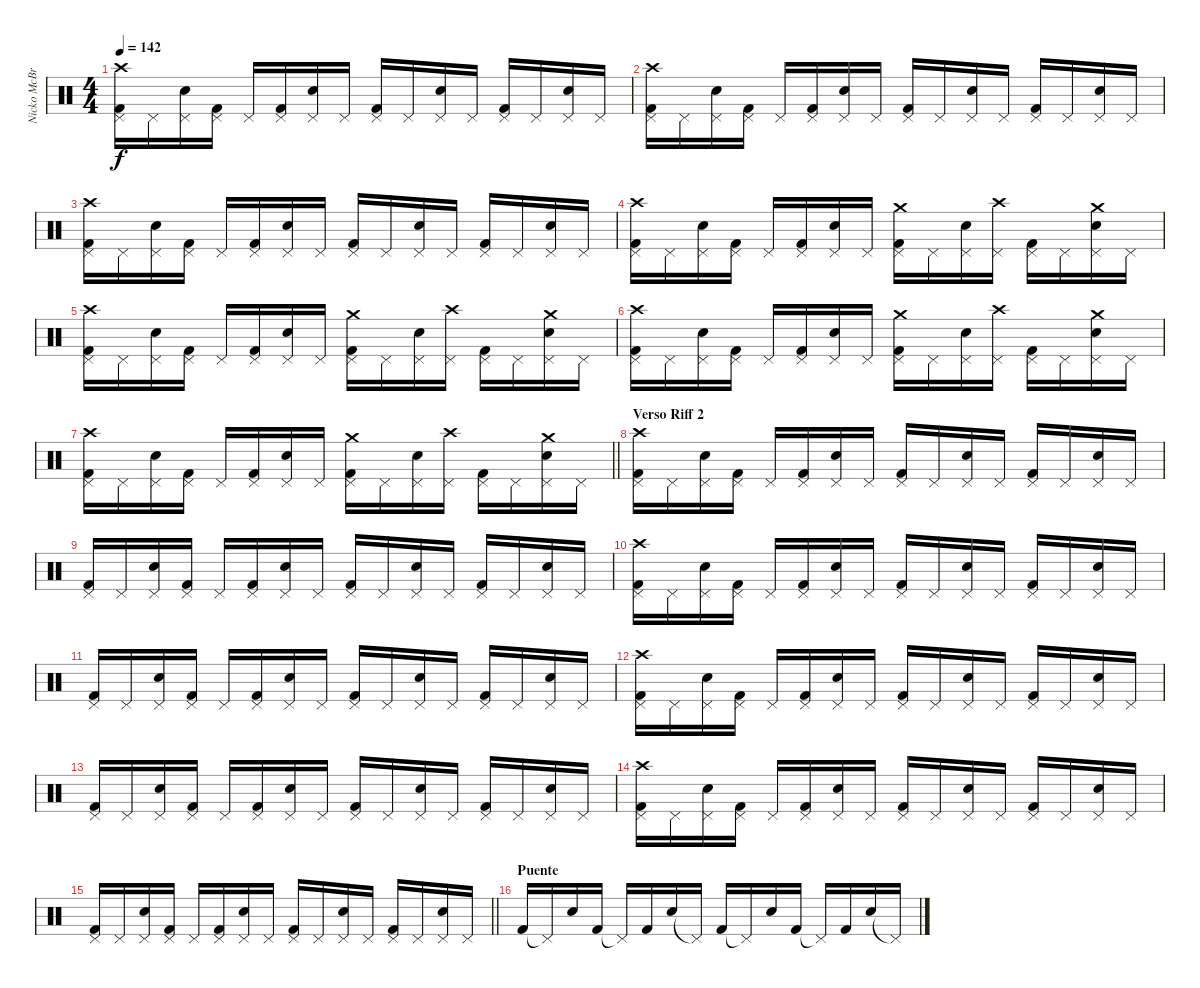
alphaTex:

\track ("Nicko McBrain" "Nicko McBr") {instrument percussion}
\staff {score}
\articulation defaults
\ts (4 4)
\tempo 142
\clef neutral
\ks c
("Kick (hit) 2" "Pedal Hi-Hat (hit)" "Crash high (hit)").16{dy f} "Pedal Hi-Hat (hit)".16 ("Snare (hit) 2" "Pedal Hi-Hat (hit)").16 ("Kick (hit) 2" "Pedal Hi-Hat (hit)").16 "Pedal Hi-Hat (hit)".16 ("Kick (hit) 2" "Pedal Hi-Hat (hit)").16 ("Snare (hit) 2" "Pedal Hi-Hat (hit)").16 "Pedal Hi-Hat (hit)".16 ("Kick (hit) 2" "Pedal Hi-Hat (hit)").16 "Pedal Hi-Hat (hit)".16 ("Snare (hit) 2" "Pedal Hi-Hat (hit)").16 "Pedal Hi-Hat (hit)".16 ("Kick (hit) 2" "Pedal Hi-Hat (hit)").16 "Pedal Hi-Hat (hit)".16 ("Snare (hit) 2" "Pedal Hi-Hat (hit)").16 "Pedal Hi-Hat (hit)".16 |
("Kick (hit) 2" "Pedal Hi-Hat (hit)" "Crash high (hit)").16 "Pedal Hi-Hat (hit)".16 ("Snare (hit) 2" "Pedal Hi-Hat (hit)").16 ("Kick (hit) 2" "Pedal Hi-Hat (hit)").16 "Pedal Hi-Hat (hit)".16 ("Kick (hit) 2" "Pedal Hi-Hat (hit)").16 ("Snare (hit) 2" "Pedal Hi-Hat (hit)").16 "Pedal Hi-Hat (hit)".16 ("Kick (hit) 2" "Pedal Hi-Hat (hit)").16 "Pedal Hi-Hat (hit)".16 ("Snare (hit) 2" "Pedal Hi-Hat (hit)").16 "Pedal Hi-Hat (hit)".16 ("Kick (hit) 2" "Pedal Hi-Hat (hit)").16 "Pedal Hi-Hat (hit)".16 ("Snare (hit) 2" "Pedal Hi-Hat (hit)").16 "Pedal Hi-Hat (hit)".16 |
("Kick (hit) 2" "Pedal Hi-Hat (hit)" "Crash high (hit)").16 "Pedal Hi-Hat (hit)".16 ("Snare (hit) 2" "Pedal Hi-Hat (hit)").16 ("Kick (hit) 2" "Pedal Hi-Hat (hit)").16 "Pedal Hi-Hat (hit)".16 ("Kick (hit) 2" "Pedal Hi-Hat (hit)").16 ("Snare (hit) 2" "Pedal Hi-Hat (hit)").16 "Pedal Hi-Hat (hit)".16 ("Kick (hit) 2" "Pedal Hi-Hat (hit)").16 "Pedal Hi-Hat (hit)".16 ("Snare (hit) 2" "Pedal Hi-Hat (hit)").16 "Pedal Hi-Hat (hit)".16 ("Kick (hit) 2" "Pedal Hi-Hat (hit)").16 "Pedal Hi-Hat (hit)".16 ("Snare (hit) 2" "Pedal Hi-Hat (hit)").16 "Pedal Hi-Hat (hit)".16 |
("Kick (hit) 2" "Pedal Hi-Hat (hit)" "Crash high (hit)").16 "Pedal Hi-Hat (hit)".16 ("Snare (hit) 2" "Pedal Hi-Hat (hit)").16 ("Kick (hit) 2" "Pedal Hi-Hat (hit)").16 "Pedal Hi-Hat (hit)".16 ("Kick (hit) 2" "Pedal Hi-Hat (hit)").16 ("Snare (hit) 2" "Pedal Hi-Hat (hit)").16 "Pedal Hi-Hat (hit)".16 ("Kick (hit) 2" "Pedal Hi-Hat (hit)" "Crash medium (hit)").16 "Pedal Hi-Hat (hit)".16 ("Snare (hit) 2" "Pedal Hi-Hat (hit)").16 ("Pedal Hi-Hat (hit)" "Crash high (hit)").16 ("Kick (hit) 2" "Pedal Hi-Hat (hit)").16 "Pedal Hi-Hat (hit)".16 ("Snare (hit) 2" "Pedal Hi-Hat (hit)" "Crash medium (hit)").16 "Pedal Hi-Hat (hit)".16 |
("Kick (hit) 2" "Pedal Hi-Hat (hit)" "Crash high (hit)").16 "Pedal Hi-Hat (hit)".16 ("Snare (hit) 2" "Pedal Hi-Hat (hit)").16 ("Kick (hit) 2" "Pedal Hi-Hat (hit)").16 "Pedal Hi-Hat (hit)".16 ("Kick (hit) 2" "Pedal Hi-Hat (hit)").16 ("Snare (hit) 2" "Pedal Hi-Hat (hit)").16 "Pedal Hi-Hat (hit)".16 ("Kick (hit) 2" "Pedal Hi-Hat (hit)" "Crash medium (hit)").16 "Pedal Hi-Hat (hit)".16 ("Snare (hit) 2" "Pedal Hi-Hat (hit)").16 ("Pedal Hi-Hat (hit)" "Crash high (hit)").16 ("Kick (hit) 2" "Pedal Hi-Hat (hit)").16 "Pedal Hi-Hat (hit)".16 ("Snare (hit) 2" "Pedal Hi-Hat (hit)" "Crash medium (hit)").16 "Pedal Hi-Hat (hit)".16 |
("Kick (hit) 2" "Pedal Hi-Hat (hit)" "Crash high (hit)").16 "Pedal Hi-Hat (hit)".16 ("Snare (hit) 2" "Pedal Hi-Hat (hit)").16 ("Kick (hit) 2" "Pedal Hi-Hat (hit)").16 "Pedal Hi-Hat (hit)".16 ("Kick (hit) 2" "Pedal Hi-Hat (hit)").16 ("Snare (hit) 2" "Pedal Hi-Hat (hit)").16 "Pedal Hi-Hat (hit)".16 ("Kick (hit) 2" "Pedal Hi-Hat (hit)" "Crash medium (hit)").16 "Pedal Hi-Hat (hit)".16 ("Snare (hit) 2" "Pedal Hi-Hat (hit)").16 ("Pedal Hi-Hat (hit)" "Crash high (hit)").16 ("Kick (hit) 2" "Pedal Hi-Hat (hit)").16 "Pedal Hi-Hat (hit)".16 ("Snare (hit) 2" "Pedal Hi-Hat (hit)" "Crash medium (hit)").16 "Pedal Hi-Hat (hit)".16 |
\barLineRight lightlight
("Kick (hit) 2" "Pedal Hi-Hat (hit)" "Crash high (hit)").16 "Pedal Hi-Hat (hit)".16 ("Snare (hit) 2" "Pedal Hi-Hat (hit)").16 ("Kick (hit) 2" "Pedal Hi-Hat (hit)").16 "Pedal Hi-Hat (hit)".16 ("Kick (hit) 2" "Pedal Hi-Hat (hit)").16 ("Snare (hit) 2" "Pedal Hi-Hat (hit)").16 "Pedal Hi-Hat (hit)".16 ("Kick (hit) 2" "Pedal Hi-Hat (hit)" "Crash medium (hit)").16 "Pedal Hi-Hat (hit)".16 ("Snare (hit) 2" "Pedal Hi-Hat (hit)").16 ("Pedal Hi-Hat (hit)" "Crash high (hit)").16 ("Kick (hit) 2" "Pedal Hi-Hat (hit)").16 "Pedal Hi-Hat (hit)".16 ("Snare (hit) 2" "Pedal Hi-Hat (hit)" "Crash medium (hit)").16 "Pedal Hi-Hat (hit)".16 |
\section ("" "Verso Riff 2")
("Kick (hit) 2" "Pedal Hi-Hat (hit)" "Crash high (hit)").16 "Pedal Hi-Hat (hit)".16 ("Snare (hit) 2" "Pedal Hi-Hat (hit)").16 ("Kick (hit) 2" "Pedal Hi-Hat (hit)").16 "Pedal Hi-Hat (hit)".16 ("Kick (hit) 2" "Pedal Hi-Hat (hit)").16 ("Snare (hit) 2" "Pedal Hi-Hat (hit)").16 "Pedal Hi-Hat (hit)".16 ("Kick (hit) 2" "Pedal Hi-Hat (hit)").16 "Pedal Hi-Hat (hit)".16 ("Snare (hit) 2" "Pedal Hi-Hat (hit)").16 "Pedal Hi-Hat (hit)".16 ("Kick (hit) 2" "Pedal Hi-Hat (hit)").16 "Pedal Hi-Hat (hit)".16 ("Snare (hit) 2" "Pedal Hi-Hat (hit)").16 "Pedal Hi-Hat (hit)".16 |
("Kick (hit) 2" "Pedal Hi-Hat (hit)").16 "Pedal Hi-Hat (hit)".16 ("Snare (hit) 2" "Pedal Hi-Hat (hit)").16 ("Kick (hit) 2" "Pedal Hi-Hat (hit)").16 "Pedal Hi-Hat (hit)".16 ("Kick (hit) 2" "Pedal Hi-Hat (hit)").16 ("Snare (hit) 2" "Pedal Hi-Hat (hit)").16 "Pedal Hi-Hat (hit)".16 ("Kick (hit) 2" "Pedal Hi-Hat (hit)").16 "Pedal Hi-Hat (hit)".16 ("Snare (hit) 2" "Pedal Hi-Hat (hit)").16 "Pedal Hi-Hat (hit)".16 ("Kick (hit) 2" "Pedal Hi-Hat (hit)").16 "Pedal Hi-Hat (hit)".16 ("Snare (hit) 2" "Pedal Hi-Hat (hit)").16 "Pedal Hi-Hat (hit)".16 |
("Kick (hit) 2" "Pedal Hi-Hat (hit)" "Crash high (hit)").16 "Pedal Hi-Hat (hit)".16 ("Snare (hit) 2" "Pedal Hi-Hat (hit)").16 ("Kick (hit) 2" "Pedal Hi-Hat (hit)").16 "Pedal Hi-Hat (hit)".16 ("Kick (hit) 2" "Pedal Hi-Hat (hit)").16 ("Snare (hit) 2" "Pedal Hi-Hat (hit)").16 "Pedal Hi-Hat (hit)".16 ("Kick (hit) 2" "Pedal Hi-Hat (hit)").16 "Pedal Hi-Hat (hit)".16 ("Snare (hit) 2" "Pedal Hi-Hat (hit)").16 "Pedal Hi-Hat (hit)".16 ("Kick (hit) 2" "Pedal Hi-Hat (hit)").16 "Pedal Hi-Hat (hit)".16 ("Snare (hit) 2" "Pedal Hi-Hat (hit)").16 "Pedal Hi-Hat (hit)".16 |
("Kick (hit) 2" "Pedal Hi-Hat (hit)").16 "Pedal Hi-Hat (hit)".16 ("Snare (hit) 2" "Pedal Hi-Hat (hit)").16 ("Kick (hit) 2" "Pedal Hi-Hat (hit)").16 "Pedal Hi-Hat (hit)".16 ("Kick (hit) 2" "Pedal Hi-Hat (hit)").16 ("Snare (hit) 2" "Pedal Hi-Hat (hit)").16 "Pedal Hi-Hat (hit)".16 ("Kick (hit) 2" "Pedal Hi-Hat (hit)").16 "Pedal Hi-Hat (hit)".16 ("Snare (hit) 2" "Pedal Hi-Hat (hit)").16 "Pedal Hi-Hat (hit)".16 ("Kick (hit) 2" "Pedal Hi-Hat (hit)").16 "Pedal Hi-Hat (hit)".16 ("Snare (hit) 2" "Pedal Hi-Hat (hit)").16 "Pedal Hi-Hat (hit)".16 |
("Kick (hit) 2" "Pedal Hi-Hat (hit)" "Crash high (hit)").16 "Pedal Hi-Hat (hit)".16 ("Snare (hit) 2" "Pedal Hi-Hat (hit)").16 ("Kick (hit) 2" "Pedal Hi-Hat (hit)").16 "Pedal Hi-Hat (hit)".16 ("Kick (hit) 2" "Pedal Hi-Hat (hit)").16 ("Snare (hit) 2" "Pedal Hi-Hat (hit)").16 "Pedal Hi-Hat (hit)".16 ("Kick (hit) 2" "Pedal Hi-Hat (hit)").16 "Pedal Hi-Hat (hit)".16 ("Snare (hit) 2" "Pedal Hi-Hat (hit)").16 "Pedal Hi-Hat (hit)".16 ("Kick (hit) 2" "Pedal Hi-Hat (hit)").16 "Pedal Hi-Hat (hit)".16 ("Snare (hit) 2" "Pedal Hi-Hat (hit)").16 "Pedal Hi-Hat (hit)".16 |
("Kick (hit) 2" "Pedal Hi-Hat (hit)").16 "Pedal Hi-Hat (hit)".16 ("Snare (hit) 2" "Pedal Hi-Hat (hit)").16 ("Kick (hit) 2" "Pedal Hi-Hat (hit)").16 "Pedal Hi-Hat (hit)".16 ("Kick (hit) 2" "Pedal Hi-Hat (hit)").16 ("Snare (hit) 2" "Pedal Hi-Hat (hit)").16 "Pedal Hi-Hat (hit)".16 ("Kick (hit) 2" "Pedal Hi-Hat (hit)").16 "Pedal Hi-Hat (hit)".16 ("Snare (hit) 2" "Pedal Hi-Hat (hit)").16 "Pedal Hi-Hat (hit)".16 ("Kick (hit) 2" "Pedal Hi-Hat (hit)").16 "Pedal Hi-Hat (hit)".16 ("Snare (hit) 2" "Pedal Hi-Hat (hit)").16 "Pedal Hi-Hat (hit)".16 |
("Kick (hit) 2" "Pedal Hi-Hat (hit)" "Crash high (hit)").16 "Pedal Hi-Hat (hit)".16 ("Snare (hit) 2" "Pedal Hi-Hat (hit)").16 ("Kick (hit) 2" "Pedal Hi-Hat (hit)").16 "Pedal Hi-Hat (hit)".16 ("Kick (hit) 2" "Pedal Hi-Hat (hit)").16 ("Snare (hit) 2" "Pedal Hi-Hat (hit)").16 "Pedal Hi-Hat (hit)".16 ("Kick (hit) 2" "Pedal Hi-Hat (hit)").16 "Pedal Hi-Hat (hit)".16 ("Snare (hit) 2" "Pedal Hi-Hat (hit)").16 "Pedal Hi-Hat (hit)".16 ("Kick (hit) 2" "Pedal Hi-Hat (hit)").16 "Pedal Hi-Hat (hit)".16 ("Snare (hit) 2" "Pedal Hi-Hat (hit)").16 "Pedal Hi-Hat (hit)".16 |
\barLineRight lightlight
("Kick (hit) 2" "Pedal Hi-Hat (hit)").16 "Pedal Hi-Hat (hit)".16 ("Snare (hit) 2" "Pedal Hi-Hat (hit)").16 ("Kick (hit) 2" "Pedal Hi-Hat (hit)").16 "Pedal Hi-Hat (hit)".16 ("Kick (hit) 2" "Pedal Hi-Hat (hit)").16 ("Snare (hit) 2" "Pedal Hi-Hat (hit)").16 "Pedal Hi-Hat (hit)".16 ("Kick (hit) 2" "Pedal Hi-Hat (hit)").16 "Pedal Hi-Hat (hit)".16 ("Snare (hit) 2" "Pedal Hi-Hat (hit)").16 "Pedal Hi-Hat (hit)".16 ("Kick (hit) 2" "Pedal Hi-Hat (hit)").16 "Pedal Hi-Hat (hit)".16 ("Snare (hit) 2" "Pedal Hi-Hat (hit)").16 "Pedal Hi-Hat (hit)".16 |
\section ("" "Puente")
"Kick (hit) 2".16 "Pedal Hi-Hat (hit)"{t}.16 "Snare (hit) 2".16 "Kick (hit) 2".16 "Pedal Hi-Hat (hit)"{t}.16 "Kick (hit) 2".16 "Snare (hit) 2".16 "Pedal Hi-Hat (hit)"{t}.16 "Kick (hit) 2".16 "Pedal Hi-Hat (hit)"{t}.16 "Snare (hit) 2".16 "Kick (hit) 2".16 "Pedal Hi-Hat (hit)"{t}.16 "Kick (hit) 2".16 "Snare (hit) 2".16 "Pedal Hi-Hat (hit)"{t}.16
